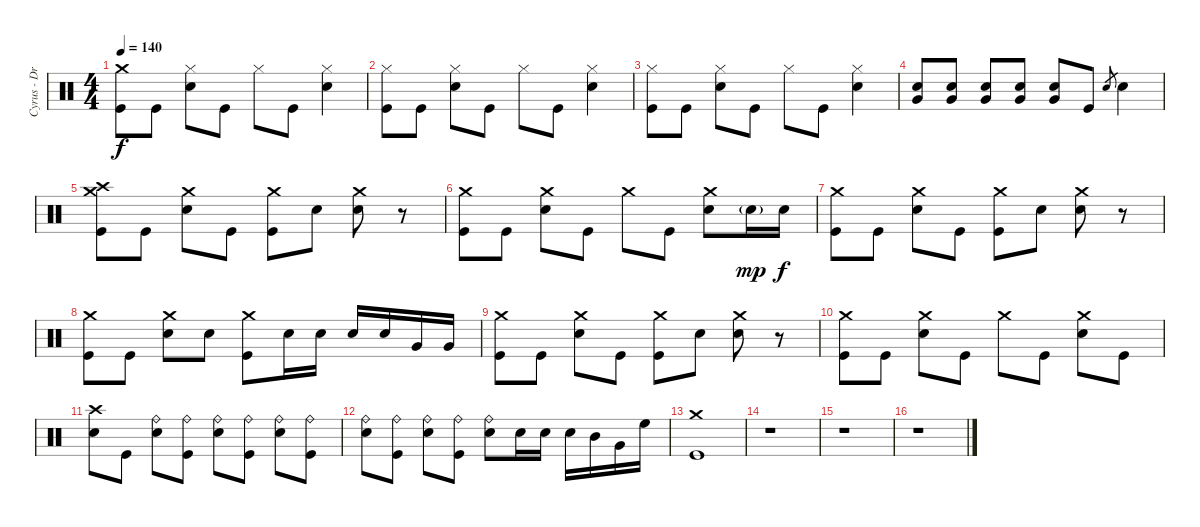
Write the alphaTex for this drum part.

\track ("Cyrus - Drums" "Cyrus - Dr") {instrument percussion}
\staff {score}
\articulation defaults
\ts (4 4)
\tempo 140
\clef neutral
\ks c
("Crash medium (hit)" "Kick (hit)").8{dy f} "Kick (hit)".8 ("Hi-Hat (closed)" "Electric Snare (hit)").8 "Kick (hit)".8 "Hi-Hat (closed)".8 "Kick (hit)".8 ("Hi-Hat (closed)" "Electric Snare (hit)").4 |
("Hi-Hat (closed)" "Kick (hit)").8 "Kick (hit)".8 ("Hi-Hat (closed)" "Electric Snare (hit)").8 "Kick (hit)".8 "Hi-Hat (closed)".8 "Kick (hit)".8 ("Hi-Hat (closed)" "Electric Snare (hit)").4 |
("Hi-Hat (closed)" "Kick (hit)").8 "Kick (hit)".8 ("Hi-Hat (closed)" "Electric Snare (hit)").8 "Kick (hit)".8 "Hi-Hat (closed)".8 "Kick (hit)".8 ("Hi-Hat (closed)" "Electric Snare (hit)").4 |
("Very Low Tom (hit)" "Electric Snare (hit)").8 ("Very Low Tom (hit)" "Electric Snare (hit)").8 ("Very Low Tom (hit)" "Electric Snare (hit)").8 ("Very Low Tom (hit)" "Electric Snare (hit)").8 ("Very Low Tom (hit)" "Electric Snare (hit)").8 "Kick (hit)".8 "Electric Snare (hit)".8{gr} "Electric Snare (hit)".4 |
("Crash high (hit)" "Crash medium (hit)" "Kick (hit)").8 "Kick (hit)".8 ("Crash medium (hit)" "Electric Snare (hit)").8 "Kick (hit)".8 ("Crash medium (hit)" "Kick (hit)").8 "Electric Snare (hit)".8 ("Crash medium (hit)" "Electric Snare (hit)").8 r.8 |
("Crash medium (hit)" "Kick (hit)").8 "Kick (hit)".8 ("Crash medium (hit)" "Electric Snare (hit)").8 "Kick (hit)".8 "Crash medium (hit)".8 "Kick (hit)".8 ("Crash medium (hit)" "Electric Snare (hit)").8 "Electric Snare (hit)"{g}.16{dy mp} "Electric Snare (hit)".16{dy f} |
("Crash medium (hit)" "Kick (hit)").8 "Kick (hit)".8 ("Crash medium (hit)" "Electric Snare (hit)").8 "Kick (hit)".8 ("Crash medium (hit)" "Kick (hit)").8 "Electric Snare (hit)".8 ("Crash medium (hit)" "Electric Snare (hit)").8 r.8 |
("Crash medium (hit)" "Kick (hit)").8 "Kick (hit)".8 ("Crash medium (hit)" "Electric Snare (hit)").8 "Electric Snare (hit)".8 ("Crash medium (hit)" "Kick (hit)").8 "Electric Snare (hit)".16 "Electric Snare (hit)".16 "Electric Snare (hit)".16 "Electric Snare (hit)".16 "Very Low Tom (hit)".16 "Very Low Tom (hit)".16 |
("Crash medium (hit)" "Kick (hit)").8 "Kick (hit)".8 ("Crash medium (hit)" "Electric Snare (hit)").8 "Kick (hit)".8 ("Crash medium (hit)" "Kick (hit)").8 "Electric Snare (hit)".8 ("Crash medium (hit)" "Electric Snare (hit)").8 r.8 |
("Crash medium (hit)" "Kick (hit)").8 "Kick (hit)".8 ("Crash medium (hit)" "Electric Snare (hit)").8 "Kick (hit)".8 "Crash medium (hit)".8 "Kick (hit)".8 ("Crash medium (hit)" "Electric Snare (hit)").8 "Kick (hit)".8 |
("Crash high (hit)" "Electric Snare (hit)").8 "Kick (hit)".8 ("Ride (bell)" "Electric Snare (hit)").8 ("Ride (bell)" "Kick (hit)").8 ("Ride (bell)" "Electric Snare (hit)").8 ("Ride (bell)" "Kick (hit)").8 ("Ride (bell)" "Electric Snare (hit)").8 ("Ride (bell)" "Kick (hit)").8 |
("Ride (bell)" "Electric Snare (hit)").8 ("Ride (bell)" "Kick (hit)").8 ("Ride (bell)" "Electric Snare (hit)").8 ("Ride (bell)" "Kick (hit)").8 ("Ride (bell)" "Electric Snare (hit)").8 "Electric Snare (hit)".16 "Electric Snare (hit)".16 "Electric Snare (hit)".16 "Mid Tom (hit)".16 "Very Low Tom (hit)".16 "High Floor Tom (hit)".16 |
("Crash medium (hit)" "Kick (hit)").1 |
r.1 |
r.1 |
r.1
